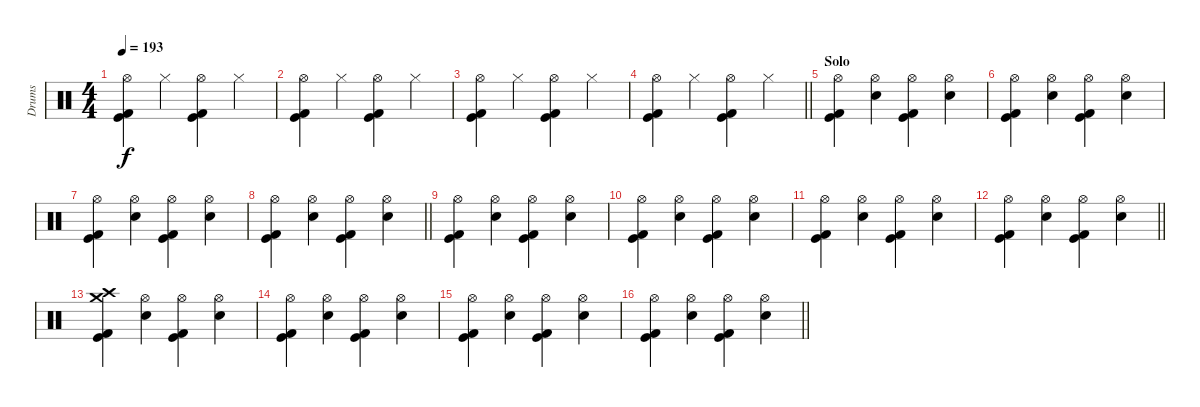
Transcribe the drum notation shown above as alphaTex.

\track ("Drums" "Drums") {instrument percussion}
\staff
\articulation defaults
\ts (4 4)
\tempo 193
\clef neutral
\ks c
("Hi-Hat (open)" "Kick (hit)" "Kick (hit) 2").4{dy f} "Hi-Hat (closed)".4 ("Hi-Hat (open)" "Kick (hit)" "Kick (hit) 2").4 "Hi-Hat (closed)".4 |
("Hi-Hat (open)" "Kick (hit)" "Kick (hit) 2").4 "Hi-Hat (closed)".4 ("Hi-Hat (open)" "Kick (hit)" "Kick (hit) 2").4 "Hi-Hat (closed)".4 |
("Hi-Hat (open)" "Kick (hit)" "Kick (hit) 2").4 "Hi-Hat (closed)".4 ("Hi-Hat (open)" "Kick (hit)" "Kick (hit) 2").4 "Hi-Hat (closed)".4 |
\barLineRight lightlight
("Hi-Hat (open)" "Kick (hit)" "Kick (hit) 2").4 "Hi-Hat (closed)".4 ("Hi-Hat (open)" "Kick (hit)" "Kick (hit) 2").4 "Hi-Hat (closed)".4 |
\section ("" "Solo")
("Hi-Hat (open)" "Kick (hit)" "Kick (hit) 2").4 ("Hi-Hat (open)" "Snare (hit) 2").4 ("Hi-Hat (open)" "Kick (hit)" "Kick (hit) 2").4 ("Hi-Hat (open)" "Snare (hit) 2").4 |
("Hi-Hat (open)" "Kick (hit)" "Kick (hit) 2").4 ("Hi-Hat (open)" "Snare (hit) 2").4 ("Hi-Hat (open)" "Kick (hit)" "Kick (hit) 2").4 ("Hi-Hat (open)" "Snare (hit) 2").4 |
("Hi-Hat (open)" "Kick (hit)" "Kick (hit) 2").4 ("Hi-Hat (open)" "Snare (hit) 2").4 ("Hi-Hat (open)" "Kick (hit)" "Kick (hit) 2").4 ("Hi-Hat (open)" "Snare (hit) 2").4 |
\barLineRight lightlight
("Hi-Hat (open)" "Kick (hit)" "Kick (hit) 2").4 ("Hi-Hat (open)" "Snare (hit) 2").4 ("Hi-Hat (open)" "Kick (hit)" "Kick (hit) 2").4 ("Hi-Hat (open)" "Snare (hit) 2").4 |
("Hi-Hat (open)" "Kick (hit)" "Kick (hit) 2").4 ("Hi-Hat (open)" "Snare (hit) 2").4 ("Hi-Hat (open)" "Kick (hit)" "Kick (hit) 2").4 ("Hi-Hat (open)" "Snare (hit) 2").4 |
("Hi-Hat (open)" "Kick (hit)" "Kick (hit) 2").4 ("Hi-Hat (open)" "Snare (hit) 2").4 ("Hi-Hat (open)" "Kick (hit)" "Kick (hit) 2").4 ("Hi-Hat (open)" "Snare (hit) 2").4 |
("Hi-Hat (open)" "Kick (hit)" "Kick (hit) 2").4 ("Hi-Hat (open)" "Snare (hit) 2").4 ("Hi-Hat (open)" "Kick (hit)" "Kick (hit) 2").4 ("Hi-Hat (open)" "Snare (hit) 2").4 |
\barLineRight lightlight
("Hi-Hat (open)" "Kick (hit)" "Kick (hit) 2").4 ("Hi-Hat (open)" "Snare (hit) 2").4 ("Hi-Hat (open)" "Kick (hit)" "Kick (hit) 2").4 ("Hi-Hat (open)" "Snare (hit) 2").4 |
("Crash high (hit)" "Crash medium (hit)" "Kick (hit)" "Kick (hit) 2").4 ("Hi-Hat (open)" "Snare (hit) 2").4 ("Hi-Hat (open)" "Kick (hit)" "Kick (hit) 2").4 ("Hi-Hat (open)" "Snare (hit) 2").4 |
("Hi-Hat (open)" "Kick (hit)" "Kick (hit) 2").4 ("Hi-Hat (open)" "Snare (hit) 2").4 ("Hi-Hat (open)" "Kick (hit)" "Kick (hit) 2").4 ("Hi-Hat (open)" "Snare (hit) 2").4 |
("Hi-Hat (open)" "Kick (hit)" "Kick (hit) 2").4 ("Hi-Hat (open)" "Snare (hit) 2").4 ("Hi-Hat (open)" "Kick (hit)" "Kick (hit) 2").4 ("Hi-Hat (open)" "Snare (hit) 2").4 |
\barLineRight lightlight
("Hi-Hat (open)" "Kick (hit)" "Kick (hit) 2").4 ("Hi-Hat (open)" "Snare (hit) 2").4 ("Hi-Hat (open)" "Kick (hit)" "Kick (hit) 2").4 ("Hi-Hat (open)" "Snare (hit) 2").4
